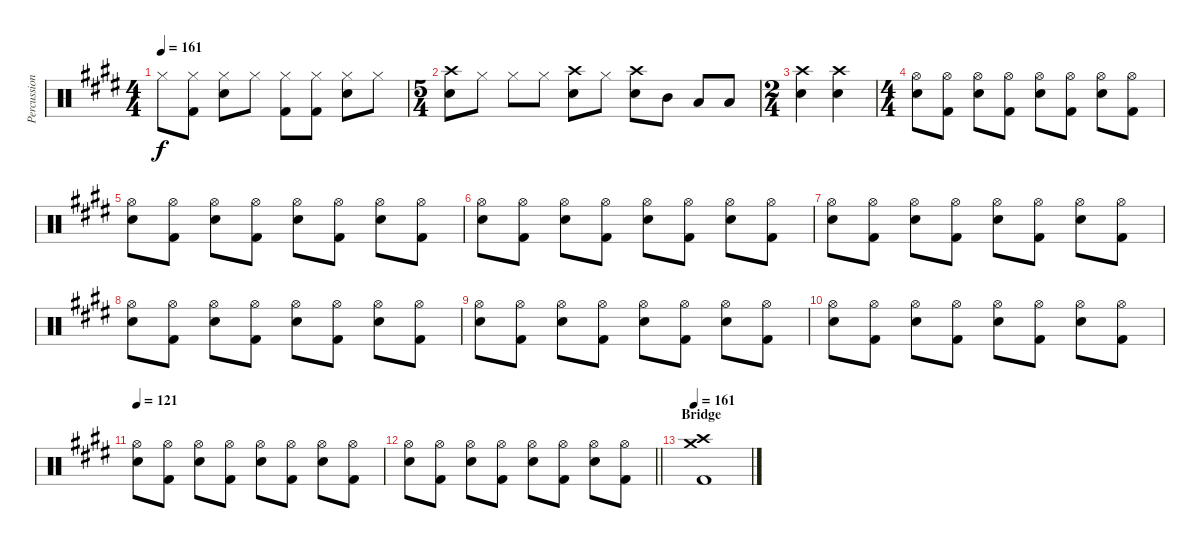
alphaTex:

\track ("Percussion" "Percussion") {instrument percussion}
\staff {score}
\articulation defaults
\ts (4 4)
\tempo 161
\clef neutral
\ks e "Hi-Hat (closed)".8{dy f}
("Hi-Hat (closed)" "Kick (hit) 2").8 ("Hi-Hat (closed)" "Snare (hit) 2").8 "Hi-Hat (closed)".8 ("Hi-Hat (closed)" "Kick (hit) 2").8 ("Hi-Hat (closed)" "Kick (hit) 2").8 ("Hi-Hat (closed)" "Snare (hit) 2").8 "Hi-Hat (closed)".8 |
\ts (5 4)
("Crash high (hit)" "Snare (hit) 2").8 "Hi-Hat (closed)".8 "Hi-Hat (closed)".8 "Hi-Hat (closed)".8 ("Crash high (hit)" "Snare (hit) 2").8 "Hi-Hat (closed)".8 ("Crash high (hit)" "Snare (hit) 2").8 "Mid Tom (hit)".8 "Low Tom (hit)".8 "Low Tom (hit)".8 |
\ts (2 4)
("Crash high (hit)" "Snare (hit) 2").4 ("Crash high (hit)" "Snare (hit) 2").4 |
\ts (4 4)
("Hi-Hat (open)" "Snare (hit) 2").8 ("Hi-Hat (open)" "Kick (hit) 2").8 ("Hi-Hat (open)" "Snare (hit) 2").8 ("Hi-Hat (open)" "Kick (hit) 2").8 ("Hi-Hat (open)" "Snare (hit) 2").8 ("Hi-Hat (open)" "Kick (hit) 2").8 ("Hi-Hat (open)" "Snare (hit) 2").8 ("Hi-Hat (open)" "Kick (hit) 2").8 |
("Hi-Hat (open)" "Snare (hit) 2").8 ("Hi-Hat (open)" "Kick (hit) 2").8 ("Hi-Hat (open)" "Snare (hit) 2").8 ("Hi-Hat (open)" "Kick (hit) 2").8 ("Hi-Hat (open)" "Snare (hit) 2").8 ("Hi-Hat (open)" "Kick (hit) 2").8 ("Hi-Hat (open)" "Snare (hit) 2").8 ("Hi-Hat (open)" "Kick (hit) 2").8 |
("Hi-Hat (open)" "Snare (hit) 2").8 ("Hi-Hat (open)" "Kick (hit) 2").8 ("Hi-Hat (open)" "Snare (hit) 2").8 ("Hi-Hat (open)" "Kick (hit) 2").8 ("Hi-Hat (open)" "Snare (hit) 2").8 ("Hi-Hat (open)" "Kick (hit) 2").8 ("Hi-Hat (open)" "Snare (hit) 2").8 ("Hi-Hat (open)" "Kick (hit) 2").8 |
("Hi-Hat (open)" "Snare (hit) 2").8 ("Hi-Hat (open)" "Kick (hit) 2").8 ("Hi-Hat (open)" "Snare (hit) 2").8 ("Hi-Hat (open)" "Kick (hit) 2").8 ("Hi-Hat (open)" "Snare (hit) 2").8 ("Hi-Hat (open)" "Kick (hit) 2").8 ("Hi-Hat (open)" "Snare (hit) 2").8 ("Hi-Hat (open)" "Kick (hit) 2").8 |
("Hi-Hat (open)" "Snare (hit) 2").8 ("Hi-Hat (open)" "Kick (hit) 2").8 ("Hi-Hat (open)" "Snare (hit) 2").8 ("Hi-Hat (open)" "Kick (hit) 2").8 ("Hi-Hat (open)" "Snare (hit) 2").8 ("Hi-Hat (open)" "Kick (hit) 2").8 ("Hi-Hat (open)" "Snare (hit) 2").8 ("Hi-Hat (open)" "Kick (hit) 2").8 |
("Hi-Hat (open)" "Snare (hit) 2").8 ("Hi-Hat (open)" "Kick (hit) 2").8 ("Hi-Hat (open)" "Snare (hit) 2").8 ("Hi-Hat (open)" "Kick (hit) 2").8 ("Hi-Hat (open)" "Snare (hit) 2").8 ("Hi-Hat (open)" "Kick (hit) 2").8 ("Hi-Hat (open)" "Snare (hit) 2").8 ("Hi-Hat (open)" "Kick (hit) 2").8 |
("Hi-Hat (open)" "Snare (hit) 2").8 ("Hi-Hat (open)" "Kick (hit) 2").8 ("Hi-Hat (open)" "Snare (hit) 2").8 ("Hi-Hat (open)" "Kick (hit) 2").8 ("Hi-Hat (open)" "Snare (hit) 2").8 ("Hi-Hat (open)" "Kick (hit) 2").8 ("Hi-Hat (open)" "Snare (hit) 2").8 ("Hi-Hat (open)" "Kick (hit) 2").8 |
\tempo 121
("Hi-Hat (open)" "Snare (hit) 2").8 ("Hi-Hat (open)" "Kick (hit) 2").8 ("Hi-Hat (open)" "Snare (hit) 2").8 ("Hi-Hat (open)" "Kick (hit) 2").8 ("Hi-Hat (open)" "Snare (hit) 2").8 ("Hi-Hat (open)" "Kick (hit) 2").8 ("Hi-Hat (open)" "Snare (hit) 2").8 ("Hi-Hat (open)" "Kick (hit) 2").8 |
\barLineRight lightlight
("Hi-Hat (open)" "Snare (hit) 2").8 ("Hi-Hat (open)" "Kick (hit) 2").8 ("Hi-Hat (open)" "Snare (hit) 2").8 ("Hi-Hat (open)" "Kick (hit) 2").8 ("Hi-Hat (open)" "Snare (hit) 2").8 ("Hi-Hat (open)" "Kick (hit) 2").8 ("Hi-Hat (open)" "Snare (hit) 2").8 ("Hi-Hat (open)" "Kick (hit) 2").8 |
\section ("" "Bridge")
\tempo 161
("Crash medium (hit)" "Crash high (hit)" "Kick (hit) 2").1
